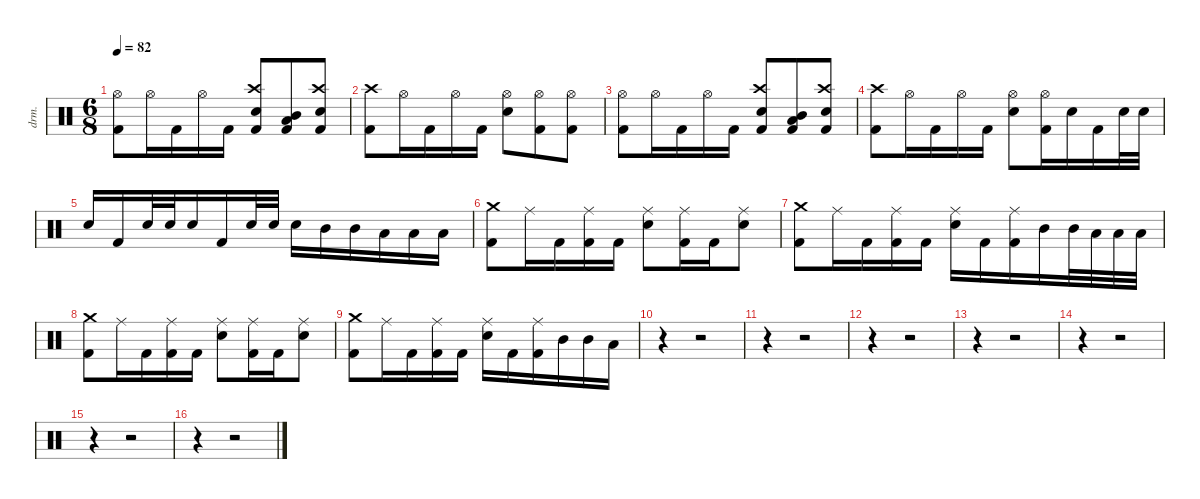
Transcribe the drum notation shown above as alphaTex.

\defaultSystemsLayout 4
\hideDynamics
\bracketExtendMode nobrackets
\otherSystemsTrackNameOrientation horizontal
\track ("Drums" "drm.") {instrument percussion}
\staff {score}
\articulation defaults
\ts (6 8)
\tempo 82
\clef neutral
\ks c
("Hi-Hat (open)" "Kick (hit) 2").8{dy f} "Hi-Hat (open)".16 "Kick (hit) 2".16 "Hi-Hat (open)".16 "Kick (hit) 2".16 ("Crash high (hit)" "Snare (hit) 2" "Kick (hit) 2").8 ("Mid Tom (hit)" "Low Tom (hit)" "Kick (hit) 2").8 ("Crash high (hit)" "Snare (hit) 2" "Kick (hit) 2").8 |
("Crash high (hit)" "Kick (hit) 2").8 "Hi-Hat (open)".16 "Kick (hit) 2".16 "Hi-Hat (open)".16 "Kick (hit) 2".16 ("Hi-Hat (open)" "Snare (hit) 2").8 ("Hi-Hat (open)" "Kick (hit) 2").8 ("Hi-Hat (open)" "Kick (hit) 2").8 |
("Hi-Hat (open)" "Kick (hit) 2").8 "Hi-Hat (open)".16 "Kick (hit) 2".16 "Hi-Hat (open)".16 "Kick (hit) 2".16 ("Crash high (hit)" "Snare (hit) 2" "Kick (hit) 2").8 ("Mid Tom (hit)" "Low Tom (hit)" "Kick (hit) 2").8 ("Crash high (hit)" "Snare (hit) 2" "Kick (hit) 2").8 |
("Crash high (hit)" "Kick (hit) 2").8 "Hi-Hat (open)".16 "Kick (hit) 2".16 "Hi-Hat (open)".16 "Kick (hit) 2".16 ("Hi-Hat (open)" "Snare (hit) 2").8 ("Hi-Hat (open)" "Kick (hit) 2").16 "Snare (hit) 2".16 "Kick (hit) 2".16 "Snare (hit) 2".32 "Snare (hit) 2".32 |
"Snare (hit) 2".16 "Kick (hit) 2".16 "Snare (hit) 2".32 "Snare (hit) 2".32 "Snare (hit) 2".16 "Kick (hit) 2".16 "Snare (hit) 2".32 "Snare (hit) 2".32 "Snare (hit) 2".16 "Mid Tom (hit)".16 "Mid Tom (hit)".16 "Low Tom (hit)".16 "Low Tom (hit)".16 "Low Tom (hit)".16 |
("Crash medium (hit)" "Kick (hit) 2").8 "Ride (middle)".16 "Kick (hit) 2".16 ("Ride (middle)" "Kick (hit) 2").16 "Kick (hit) 2".16 ("Ride (middle)" "Snare (hit) 2").8 ("Ride (middle)" "Kick (hit) 2").16 "Kick (hit) 2".16 ("Ride (middle)" "Snare (hit) 2").8 |
("Crash medium (hit)" "Kick (hit) 2").8 "Ride (middle)".16 "Kick (hit) 2".16 ("Ride (middle)" "Kick (hit) 2").16 "Kick (hit) 2".16 ("Ride (middle)" "Snare (hit) 2").16 "Kick (hit) 2".16 ("Ride (middle)" "Kick (hit) 2").16 "Mid Tom (hit)".16 "Mid Tom (hit)".32 "Low Tom (hit)".32 "Low Tom (hit)".32 "Low Tom (hit)".32 |
("Crash medium (hit)" "Kick (hit) 2").8 "Ride (middle)".16 "Kick (hit) 2".16 ("Ride (middle)" "Kick (hit) 2").16 "Kick (hit) 2".16 ("Ride (middle)" "Snare (hit) 2").8 ("Ride (middle)" "Kick (hit) 2").16 "Kick (hit) 2".16 ("Ride (middle)" "Snare (hit) 2").8 |
("Crash medium (hit)" "Kick (hit) 2").8 "Ride (middle)".16 "Kick (hit) 2".16 ("Ride (middle)" "Kick (hit) 2").16 "Kick (hit) 2".16 ("Ride (middle)" "Snare (hit) 2").16 "Kick (hit) 2".16 ("Ride (middle)" "Kick (hit) 2").16 "Mid Tom (hit)".16 "Mid Tom (hit)".16 "Low Tom (hit)".16 |
r.4 r.2 |
r.4 r.2 |
r.4 r.2 |
r.4 r.2 |
r.4 r.2 |
r.4 r.2 |
r.4 r.2
